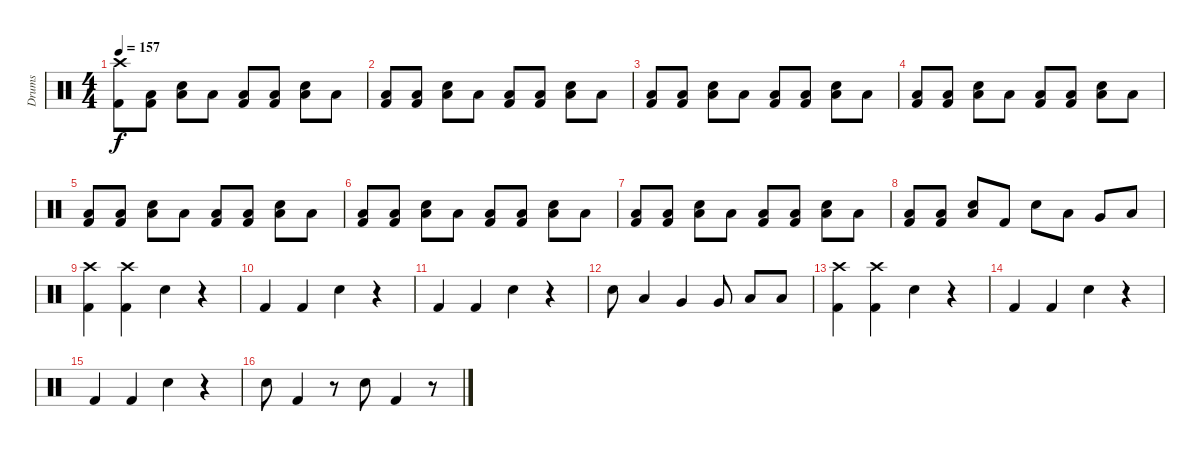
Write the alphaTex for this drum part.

\track ("Drums" "Drums") {instrument percussion}
\staff {score}
\articulation defaults
\ts (4 4)
\tempo 157
\clef neutral
\ks c
("Crash high (hit)" "Kick (hit) 2").8{dy f} ("Low Floor Tom (hit)" "Kick (hit) 2").8 ("Snare (hit) 2" "Low Floor Tom (hit)").8 "Low Floor Tom (hit)".8 ("Low Floor Tom (hit)" "Kick (hit) 2").8 ("Low Floor Tom (hit)" "Kick (hit) 2").8 ("Snare (hit) 2" "Low Floor Tom (hit)").8 "Low Floor Tom (hit)".8 |
("Low Floor Tom (hit)" "Kick (hit) 2").8 ("Low Floor Tom (hit)" "Kick (hit) 2").8 ("Snare (hit) 2" "Low Floor Tom (hit)").8 "Low Floor Tom (hit)".8 ("Low Floor Tom (hit)" "Kick (hit) 2").8 ("Low Floor Tom (hit)" "Kick (hit) 2").8 ("Snare (hit) 2" "Low Floor Tom (hit)").8 "Low Floor Tom (hit)".8 |
("Low Floor Tom (hit)" "Kick (hit) 2").8 ("Low Floor Tom (hit)" "Kick (hit) 2").8 ("Snare (hit) 2" "Low Floor Tom (hit)").8 "Low Floor Tom (hit)".8 ("Low Floor Tom (hit)" "Kick (hit) 2").8 ("Low Floor Tom (hit)" "Kick (hit) 2").8 ("Snare (hit) 2" "Low Floor Tom (hit)").8 "Low Floor Tom (hit)".8 |
("Low Floor Tom (hit)" "Kick (hit) 2").8 ("Low Floor Tom (hit)" "Kick (hit) 2").8 ("Snare (hit) 2" "Low Floor Tom (hit)").8 "Low Floor Tom (hit)".8 ("Low Floor Tom (hit)" "Kick (hit) 2").8 ("Low Floor Tom (hit)" "Kick (hit) 2").8 ("Snare (hit) 2" "Low Floor Tom (hit)").8 "Low Floor Tom (hit)".8 |
("Low Floor Tom (hit)" "Kick (hit) 2").8 ("Low Floor Tom (hit)" "Kick (hit) 2").8 ("Snare (hit) 2" "Low Floor Tom (hit)").8 "Low Floor Tom (hit)".8 ("Low Floor Tom (hit)" "Kick (hit) 2").8 ("Low Floor Tom (hit)" "Kick (hit) 2").8 ("Snare (hit) 2" "Low Floor Tom (hit)").8 "Low Floor Tom (hit)".8 |
("Low Floor Tom (hit)" "Kick (hit) 2").8 ("Low Floor Tom (hit)" "Kick (hit) 2").8 ("Snare (hit) 2" "Low Floor Tom (hit)").8 "Low Floor Tom (hit)".8 ("Low Floor Tom (hit)" "Kick (hit) 2").8 ("Low Floor Tom (hit)" "Kick (hit) 2").8 ("Snare (hit) 2" "Low Floor Tom (hit)").8 "Low Floor Tom (hit)".8 |
("Low Floor Tom (hit)" "Kick (hit) 2").8 ("Low Floor Tom (hit)" "Kick (hit) 2").8 ("Snare (hit) 2" "Low Floor Tom (hit)").8 "Low Floor Tom (hit)".8 ("Low Floor Tom (hit)" "Kick (hit) 2").8 ("Low Floor Tom (hit)" "Kick (hit) 2").8 ("Snare (hit) 2" "Low Floor Tom (hit)").8 "Low Floor Tom (hit)".8 |
("Low Floor Tom (hit)" "Kick (hit) 2").8 ("Low Floor Tom (hit)" "Kick (hit) 2").8 ("Snare (hit) 2" "Low Floor Tom (hit)").8 "Kick (hit) 2".8 "Snare (hit) 2".8 "Low Tom (hit)".8 "Very Low Tom (hit)".8 "Low Floor Tom (hit)".8 |
("Crash high (hit)" "Kick (hit) 2").4 ("Crash high (hit)" "Kick (hit) 2").4 "Snare (hit) 2".4 r.4 |
"Kick (hit) 2".4 "Kick (hit) 2".4 "Snare (hit) 2".4 r.4 |
"Kick (hit) 2".4 "Kick (hit) 2".4 "Snare (hit) 2".4 r.4 |
"Snare (hit) 2".8 "Low Tom (hit)".4 "Very Low Tom (hit)".4 "Very Low Tom (hit)".8 "Low Floor Tom (hit)".8 "Low Floor Tom (hit)".8 |
("Crash high (hit)" "Kick (hit) 2").4 ("Crash high (hit)" "Kick (hit) 2").4 "Snare (hit) 2".4 r.4 |
"Kick (hit) 2".4 "Kick (hit) 2".4 "Snare (hit) 2".4 r.4 |
"Kick (hit) 2".4 "Kick (hit) 2".4 "Snare (hit) 2".4 r.4 |
"Snare (hit) 2".8 "Kick (hit) 2".4 r.8 "Snare (hit) 2".8 "Kick (hit) 2".4 r.8
